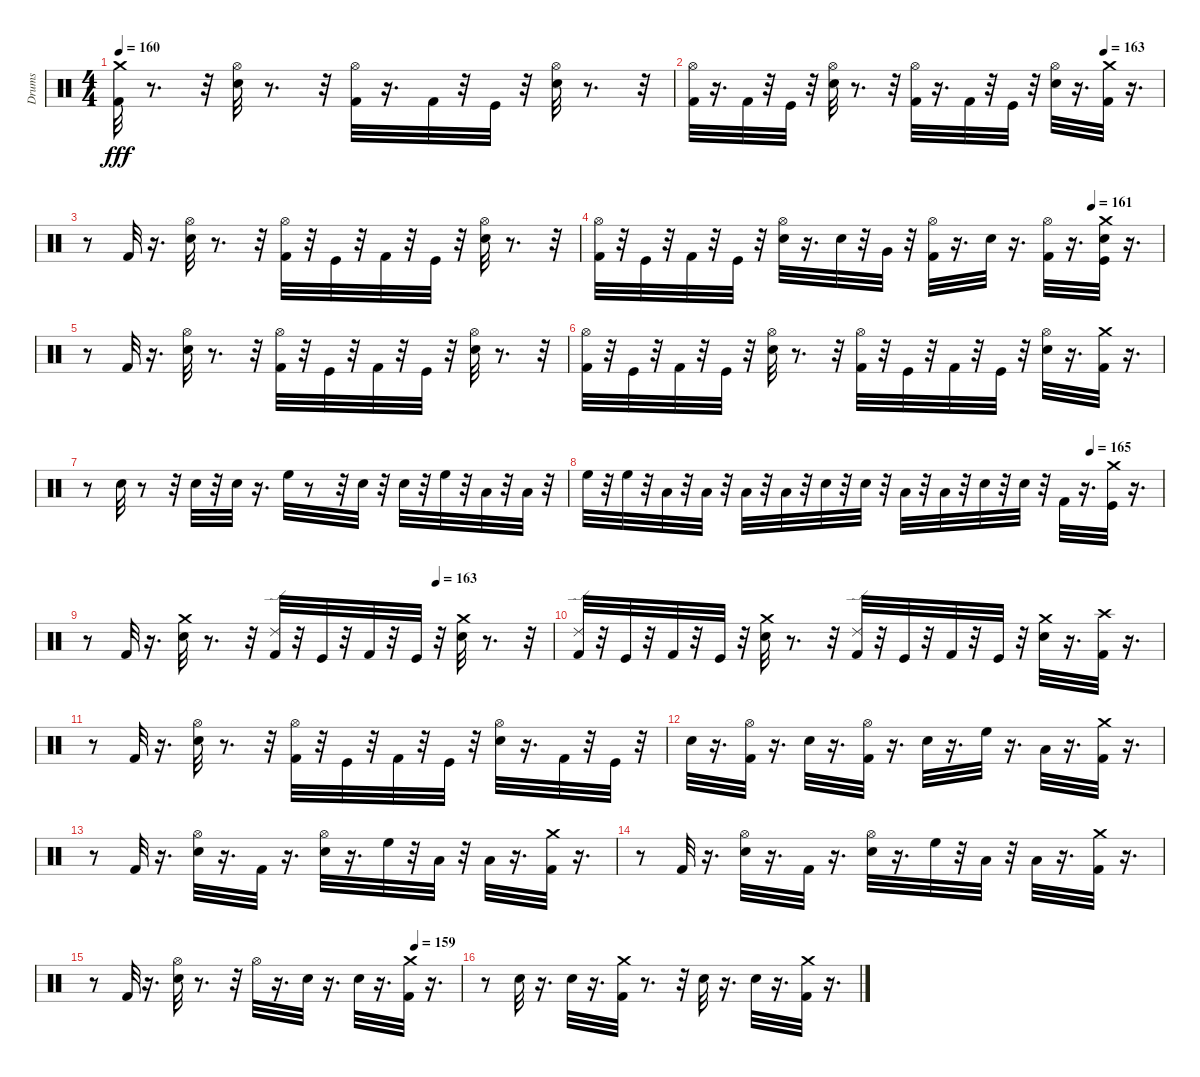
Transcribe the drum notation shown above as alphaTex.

\track ("Drums" "Drums") {instrument percussion}
\staff {score}
\articulation defaults
\ts (4 4)
\tempo 160
\clef neutral
\ks c
("Kick (hit) 2" "Crash medium (hit)").32{dy fff} r.8{d} r.32 ("Snare (hit) 2" "Hi-Hat (open)").32 r.8{d} r.32 ("Kick (hit) 2" "Hi-Hat (open)").32 r.16{d} "Kick (hit) 2".32 r.32 "Kick (hit)".32 r.32 ("Snare (hit) 2" "Hi-Hat (open)").32 r.8{d} r.32 |
\tempo (163 0.875)
("Kick (hit) 2" "Hi-Hat (open)").32 r.16{d} "Kick (hit) 2".32 r.32 "Kick (hit)".32 r.32 ("Snare (hit) 2" "Hi-Hat (open)").32 r.8{d} r.32 ("Kick (hit) 2" "Hi-Hat (open)").32 r.16{d} "Kick (hit) 2".32 r.32 "Kick (hit)".32 r.32 ("Snare (hit) 2" "Hi-Hat (open)").32 r.16{d} ("Kick (hit) 2" "Crash medium (hit)").32 r.16{d} |
r.8 "Kick (hit) 2".32 r.16{d} ("Snare (hit) 2" "Hi-Hat (open)").32 r.8{d} r.32 ("Kick (hit) 2" "Hi-Hat (open)").32 r.32 "Kick (hit)".32 r.32 "Kick (hit) 2".32 r.32 "Kick (hit)".32 r.32 ("Snare (hit) 2" "Hi-Hat (open)").32 r.8{d} r.32 |
\tempo (161 0.875)
("Kick (hit) 2" "Hi-Hat (open)").32 r.32 "Kick (hit)".32 r.32 "Kick (hit) 2".32 r.32 "Kick (hit)".32 r.32 ("Snare (hit) 2" "Hi-Hat (open)").32 r.16{d} "Snare (hit) 2".32 r.32 "Very Low Tom (hit)".32 r.32 ("Kick (hit) 2" "Hi-Hat (open)").32 r.16{d} "Snare (hit) 2".32 r.16{d} ("Kick (hit) 2" "Hi-Hat (open)").32 r.16{d} ("Snare (hit) 2" "Kick (hit)" "Crash medium (hit)").32 r.16{d} |
r.8 "Kick (hit) 2".32 r.16{d} ("Snare (hit) 2" "Hi-Hat (open)").32 r.8{d} r.32 ("Kick (hit) 2" "Hi-Hat (open)").32 r.32 "Kick (hit)".32 r.32 "Kick (hit) 2".32 r.32 "Kick (hit)".32 r.32 ("Snare (hit) 2" "Hi-Hat (open)").32 r.8{d} r.32 |
("Kick (hit) 2" "Hi-Hat (open)").32 r.32 "Kick (hit)".32 r.32 "Kick (hit) 2".32 r.32 "Kick (hit)".32 r.32 ("Snare (hit) 2" "Hi-Hat (open)").32 r.8{d} r.32 ("Kick (hit) 2" "Hi-Hat (open)").32 r.32 "Kick (hit)".32 r.32 "Kick (hit) 2".32 r.32 "Kick (hit)".32 r.32 ("Snare (hit) 2" "Hi-Hat (open)").32 r.16{d} ("Kick (hit) 2" "Crash medium (hit)").32 r.16{d} |
r.8 "Snare (hit) 2".32 r.8 r.32 "Snare (hit) 2".32 r.32 "Snare (hit) 2".32 r.16{d} "High Floor Tom (hit)".32 r.8 r.32 "Snare (hit) 2".32 r.32 "Snare (hit) 2".32 r.32 "High Floor Tom (hit)".32 r.32 "Low Tom (hit)".32 r.32 "Low Tom (hit)".32 r.32 |
\tempo (165 0.875)
"High Floor Tom (hit)".32 r.32 "High Floor Tom (hit)".32 r.32 "Low Tom (hit)".32 r.32 "Low Tom (hit)".32 r.32 "Low Floor Tom (hit)".32 r.32 "Low Floor Tom (hit)".32 r.32 "Snare (hit) 2".32 r.32 "Snare (hit) 2".32 r.32 "Low Floor Tom (hit)".32 r.32 "Low Floor Tom (hit)".32 r.32 "Snare (hit) 2".32 r.32 "Snare (hit) 2".32 r.32 "Kick (hit) 2".32 r.16{d} ("Crash medium (hit)" "Kick (hit)").32 r.16{d} |
\tempo (163 0.75)
r.8 "Kick (hit) 2".32 r.16{d} ("Crash medium (hit)" "Snare (hit) 2").32 r.8{d} r.32 ("Ride (edge) 2" "Kick (hit) 2").32 r.32 "Kick (hit)".32 r.32 "Kick (hit) 2".32 r.32 "Kick (hit)".32 r.32 ("Crash medium (hit)" "Snare (hit) 2").32 r.8{d} r.32 |
("Kick (hit) 2" "Ride (edge) 2").32 r.32 "Kick (hit)".32 r.32 "Kick (hit) 2".32 r.32 "Kick (hit)".32 r.32 ("Snare (hit) 2" "Crash medium (hit)").32 r.8{d} r.32 ("Kick (hit) 2" "Ride (edge) 2").32 r.32 "Kick (hit)".32 r.32 "Kick (hit) 2".32 r.32 "Kick (hit)".32 r.32 ("Snare (hit) 2" "Crash medium (hit)").32 r.16{d} ("Kick (hit) 2" "Crash high (hit)").32 r.16{d} |
r.8 "Kick (hit) 2".32 r.16{d} ("Snare (hit) 2" "Hi-Hat (open)").32 r.8{d} r.32 ("Kick (hit) 2" "Hi-Hat (open)").32 r.32 "Kick (hit)".32 r.32 "Kick (hit) 2".32 r.32 "Kick (hit)".32 r.32 ("Snare (hit) 2" "Hi-Hat (open)").32 r.16{d} "Kick (hit) 2".32 r.32 "Kick (hit)".32 r.32 |
"Snare (hit) 2".32 r.16{d} ("Kick (hit) 2" "Hi-Hat (open)").32 r.16{d} "Snare (hit) 2".32 r.16{d} ("Kick (hit) 2" "Hi-Hat (open)").32 r.16{d} "Snare (hit) 2".32 r.16{d} "High Floor Tom (hit)".32 r.16{d} "Low Tom (hit)".32 r.16{d} ("Kick (hit) 2" "Crash medium (hit)").32 r.16{d} |
r.8 "Kick (hit) 2".32 r.16{d} ("Snare (hit) 2" "Hi-Hat (open)").32 r.16{d} "Kick (hit) 2".32 r.16{d} ("Snare (hit) 2" "Hi-Hat (open)").32 r.16{d} "High Floor Tom (hit)".32 r.32 "Low Tom (hit)".32 r.32 "Low Floor Tom (hit)".32 r.16{d} ("Crash medium (hit)" "Kick (hit) 2").32 r.16{d} |
r.8 "Kick (hit) 2".32 r.16{d} ("Hi-Hat (open)" "Snare (hit) 2").32 r.16{d} "Kick (hit) 2".32 r.16{d} ("Snare (hit) 2" "Hi-Hat (open)").32 r.16{d} "High Floor Tom (hit)".32 r.32 "Low Tom (hit)".32 r.32 "Low Floor Tom (hit)".32 r.16{d} ("Crash medium (hit)" "Kick (hit) 2").32 r.16{d} |
\tempo (159 0.875)
r.8 "Kick (hit) 2".32 r.16{d} ("Snare (hit) 2" "Hi-Hat (open)").32 r.8{d} r.32 "Hi-Hat (open)".32 r.16{d} "Snare (hit) 2".32 r.16{d} "Snare (hit) 2".32 r.16{d} ("Crash medium (hit)" "Kick (hit) 2").32 r.16{d} |
r.8 "Snare (hit) 2".32 r.16{d} "Snare (hit) 2".32 r.16{d} ("Kick (hit) 2" "Crash medium (hit)").32 r.8{d} r.32 "Snare (hit) 2".32 r.16{d} "Snare (hit) 2".32 r.16{d} ("Crash medium (hit)" "Kick (hit) 2").32 r.16{d}
